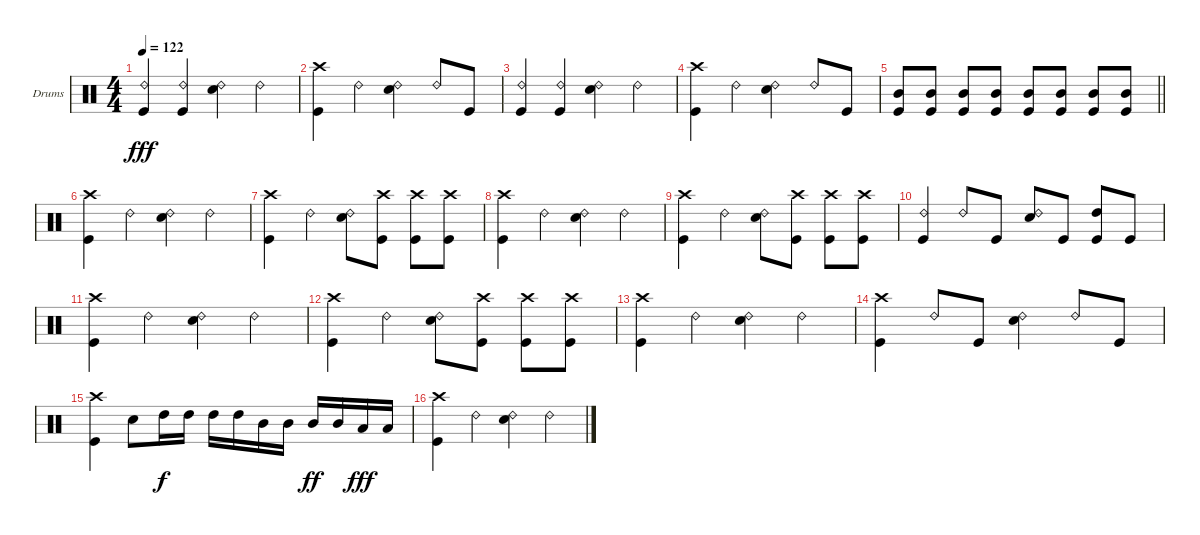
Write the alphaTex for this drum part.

\bracketExtendMode groupsimilarinstruments
\firstSystemTrackNameOrientation horizontal
\otherSystemsTrackNameOrientation horizontal
\track ("Drumkit" "Drums") {instrument percussion}
\staff {score}
\articulation defaults
\ts (4 4)
\tempo 122
\clef neutral
\ks c
("Ride (bell) 2" "Kick (hit)").4{dy fff} ("Ride (bell) 2" "Kick (hit)").4 ("Ride (bell) 2" "Snare (hit) 2").4 "Ride (bell) 2".4 |
("Kick (hit)" "Crash high (hit)").4 "Ride (bell) 2".4 ("Ride (bell) 2" "Snare (hit) 2").4 "Ride (bell) 2".8 "Kick (hit)".8 |
("Ride (bell) 2" "Kick (hit)").4 ("Ride (bell) 2" "Kick (hit)").4 ("Ride (bell) 2" "Snare (hit) 2").4 "Ride (bell) 2".4 |
("Kick (hit)" "Crash high (hit)").4 "Ride (bell) 2".4 ("Ride (bell) 2" "Snare (hit) 2").4 "Ride (bell) 2".8 "Kick (hit)".8 |
\barLineRight lightlight
("Kick (hit)" "Mid Tom (hit)").8 ("Kick (hit)" "Mid Tom (hit)").8 ("Kick (hit)" "Mid Tom (hit)").8 ("Kick (hit)" "Mid Tom (hit)").8 ("Kick (hit)" "Mid Tom (hit)").8 ("Kick (hit)" "Mid Tom (hit)").8 ("Kick (hit)" "Mid Tom (hit)").8 ("Kick (hit)" "Mid Tom (hit)").8 |
("Kick (hit)" "Crash high (hit)").4 "Ride (bell) 2".4 ("Ride (bell) 2" "Snare (hit) 2").4 "Ride (bell) 2".4 |
("Kick (hit)" "Crash high (hit)").4 "Ride (bell) 2".4 ("Snare (hit) 2" "Ride (bell) 2").8 ("Kick (hit)" "Crash high (hit)").8 ("Kick (hit)" "Crash high (hit)").8 ("Kick (hit)" "Crash high (hit)").8 |
("Kick (hit)" "Crash high (hit)").4 "Ride (bell) 2".4 ("Ride (bell) 2" "Snare (hit) 2").4 "Ride (bell) 2".4 |
("Kick (hit)" "Crash high (hit)").4 "Ride (bell) 2".4 ("Snare (hit) 2" "Ride (bell) 2").8 ("Kick (hit)" "Crash high (hit)").8 ("Kick (hit)" "Crash high (hit)").8 ("Kick (hit)" "Crash high (hit)").8 |
("Kick (hit)" "Ride (bell) 2").4 "Ride (bell) 2".8 "Kick (hit)".8 ("Snare (hit) 2" "Ride (bell) 2").8 "Kick (hit)".8 ("Kick (hit)" "High Tom (hit)").8 "Kick (hit)".8 |
("Kick (hit)" "Crash high (hit)").4 "Ride (bell) 2".4 ("Ride (bell) 2" "Snare (hit) 2").4 "Ride (bell) 2".4 |
("Kick (hit)" "Crash high (hit)").4 "Ride (bell) 2".4 ("Snare (hit) 2" "Ride (bell) 2").8 ("Kick (hit)" "Crash high (hit)").8 ("Kick (hit)" "Crash high (hit)").8 ("Kick (hit)" "Crash high (hit)").8 |
("Kick (hit)" "Crash high (hit)").4 "Ride (bell) 2".4 ("Ride (bell) 2" "Snare (hit) 2").4 "Ride (bell) 2".4 |
("Crash high (hit)" "Kick (hit)").4 "Ride (bell) 2".8 "Kick (hit)".8 ("Ride (bell) 2" "Snare (hit) 2").4 "Ride (bell) 2".8 "Kick (hit)".8 |
("Kick (hit)" "Crash high (hit)").4 "Snare (hit) 2".8 "High Tom (hit)".16{dy f} "High Tom (hit)".16 "High Tom (hit)".16 "High Tom (hit)".16 "Mid Tom (hit)".16 "Mid Tom (hit)".16 "Mid Tom (hit)".16{dy ff} "Mid Tom (hit)".16 "Low Tom (hit)".16{dy fff} "Low Tom (hit)".16 |
("Kick (hit)" "Crash high (hit)").4 "Ride (bell) 2".4 ("Ride (bell) 2" "Snare (hit) 2").4 "Ride (bell) 2".4
